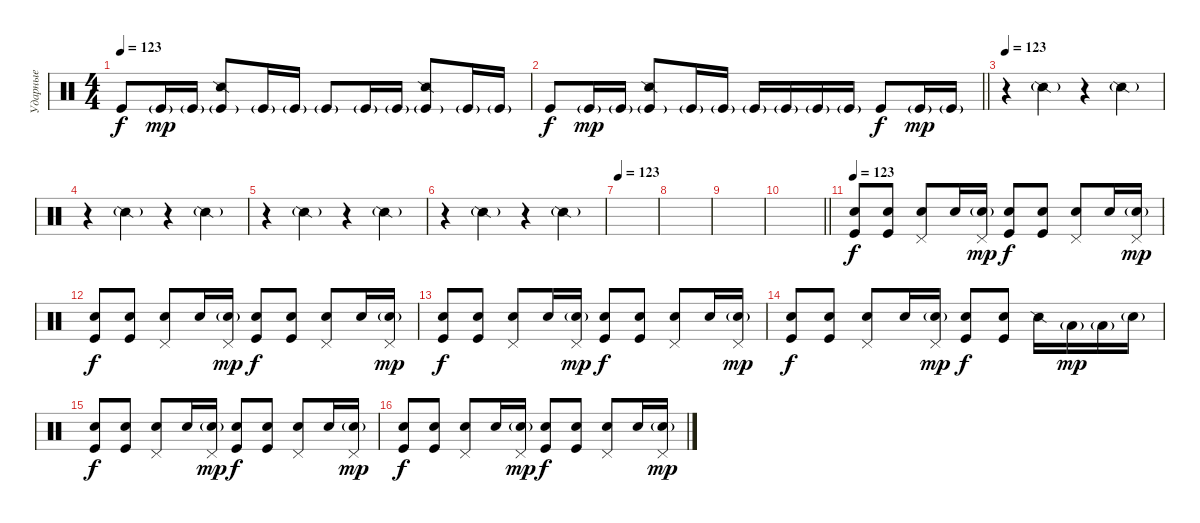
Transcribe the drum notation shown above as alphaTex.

\track ("Ударные" "Ударные") {instrument percussion}
\staff {score}
\articulation defaults
\ts (4 4)
\tempo 123
\clef neutral
\ks c "Kick (hit)".8{dy f} "Kick (hit)"{g}.16{dy mp} "Kick (hit)"{g}.16
("Snare (side stick) 2" "Kick (hit)"{g}).8 "Kick (hit)"{g}.16 "Kick (hit)"{g}.16 "Kick (hit)"{g}.8 "Kick (hit)"{g}.16 "Kick (hit)"{g}.16 ("Snare (side stick) 2" "Kick (hit)"{g}).8 "Kick (hit)"{g}.16 "Kick (hit)"{g}.16 |
\barLineRight lightlight "Kick (hit)".8{dy f} "Kick (hit)"{g}.16{dy mp} "Kick (hit)"{g}.16
("Snare (side stick) 2" "Kick (hit)"{g}).8 "Kick (hit)"{g}.16 "Kick (hit)"{g}.16 "Kick (hit)"{g}.16 "Kick (hit)"{g}.16 "Kick (hit)"{g}.16 "Kick (hit)"{g}.16 "Kick (hit)".8{dy f} "Kick (hit)"{g}.16{dy mp} "Kick (hit)"{g}.16 |
\tempo 123
r.4 "Snare (side stick) 2"{g}.4 r.4 "Snare (side stick) 2"{g}.4 |
r.4 "Snare (side stick) 2"{g}.4 r.4 "Snare (side stick) 2"{g}.4 |
r.4 "Snare (side stick) 2"{g}.4 r.4 "Snare (side stick) 2"{g}.4 |
r.4 "Snare (side stick) 2"{g}.4 r.4 "Snare (side stick) 2"{g}.4 |
\tempo 123
|
|
|
\barLineRight lightlight
|
\tempo 123
("Hand Clap (hit)" "Kick (hit)").8{dy f} ("Hand Clap (hit)" "Kick (hit)").8 ("Pedal Hi-Hat (hit)" "Snare (hit) 2").8 "Hand Clap (hit)".16 ("Pedal Hi-Hat (hit)" "Snare (hit) 2"{g}).16{dy mp} ("Hand Clap (hit)" "Kick (hit)").8{dy f} ("Hand Clap (hit)" "Kick (hit)").8 ("Pedal Hi-Hat (hit)" "Snare (hit) 2").8 "Hand Clap (hit)".16 ("Pedal Hi-Hat (hit)" "Snare (hit) 2"{g}).16{dy mp} |
("Hand Clap (hit)" "Kick (hit)").8{dy f} ("Hand Clap (hit)" "Kick (hit)").8 ("Pedal Hi-Hat (hit)" "Snare (hit) 2").8 "Hand Clap (hit)".16 ("Pedal Hi-Hat (hit)" "Snare (hit) 2"{g}).16{dy mp} ("Hand Clap (hit)" "Kick (hit)").8{dy f} ("Hand Clap (hit)" "Kick (hit)").8 ("Pedal Hi-Hat (hit)" "Snare (hit) 2").8 "Hand Clap (hit)".16 ("Pedal Hi-Hat (hit)" "Snare (hit) 2"{g}).16{dy mp} |
("Hand Clap (hit)" "Kick (hit)").8{dy f} ("Hand Clap (hit)" "Kick (hit)").8 ("Pedal Hi-Hat (hit)" "Snare (hit) 2").8 "Hand Clap (hit)".16 ("Pedal Hi-Hat (hit)" "Snare (hit) 2"{g}).16{dy mp} ("Hand Clap (hit)" "Kick (hit)").8{dy f} ("Hand Clap (hit)" "Kick (hit)").8 ("Pedal Hi-Hat (hit)" "Snare (hit) 2").8 "Hand Clap (hit)".16 ("Pedal Hi-Hat (hit)" "Snare (hit) 2"{g}).16{dy mp} |
("Hand Clap (hit)" "Kick (hit)").8{dy f} ("Hand Clap (hit)" "Kick (hit)").8 ("Pedal Hi-Hat (hit)" "Snare (hit) 2").8 "Hand Clap (hit)".16 ("Pedal Hi-Hat (hit)" "Snare (hit) 2"{g}).16{dy mp} ("Hand Clap (hit)" "Kick (hit)").8{dy f} ("Hand Clap (hit)" "Kick (hit)").8 "Snare (side stick) 2".16 "Low Tom (hit)"{g}.16{dy mp} "Low Tom (hit)"{g}.16 "Snare (hit) 2"{g}.16 |
("Hand Clap (hit)" "Kick (hit)").8{dy f} ("Hand Clap (hit)" "Kick (hit)").8 ("Pedal Hi-Hat (hit)" "Snare (hit) 2").8 "Hand Clap (hit)".16 ("Pedal Hi-Hat (hit)" "Snare (hit) 2"{g}).16{dy mp} ("Hand Clap (hit)" "Kick (hit)").8{dy f} ("Hand Clap (hit)" "Kick (hit)").8 ("Pedal Hi-Hat (hit)" "Snare (hit) 2").8 "Hand Clap (hit)".16 ("Pedal Hi-Hat (hit)" "Snare (hit) 2"{g}).16{dy mp} |
("Hand Clap (hit)" "Kick (hit)").8{dy f} ("Hand Clap (hit)" "Kick (hit)").8 ("Pedal Hi-Hat (hit)" "Snare (hit) 2").8 "Hand Clap (hit)".16 ("Pedal Hi-Hat (hit)" "Snare (hit) 2"{g}).16{dy mp} ("Hand Clap (hit)" "Kick (hit)").8{dy f} ("Hand Clap (hit)" "Kick (hit)").8 ("Pedal Hi-Hat (hit)" "Snare (hit) 2").8 "Hand Clap (hit)".16 ("Pedal Hi-Hat (hit)" "Snare (hit) 2"{g}).16{dy mp}
